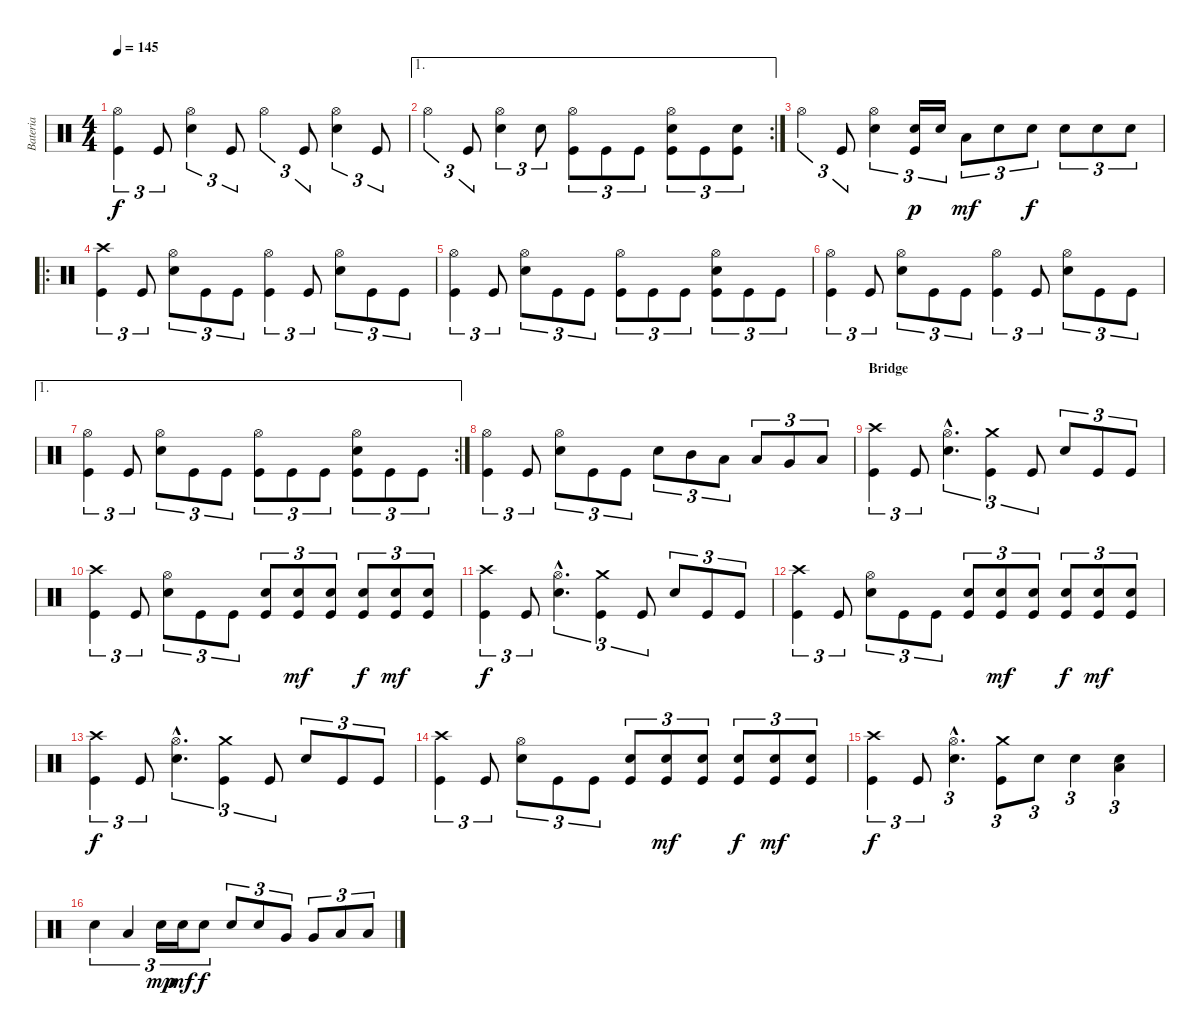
\track ("Bateria" "Bateria") {instrument percussion}
\staff {score}
\articulation defaults
\ts (4 4)
\tempo 145
\clef neutral
\ks c
("Hi-Hat (open)" "Kick (hit)").4{tu (3 2) dy f} "Kick (hit)".8{tu (3 2)} ("Hi-Hat (open)" "Snare (hit) 2").4{tu (3 2)} "Kick (hit)".8{tu (3 2)} "Hi-Hat (open)".4{tu (3 2)} "Kick (hit)".8{tu (3 2)} ("Hi-Hat (open)" "Snare (hit) 2").4{tu (3 2)} "Kick (hit)".8{tu (3 2)} |
\ae 1
\rc 2 "Hi-Hat (open)".4{tu (3 2)} "Kick (hit)".8{tu (3 2)}
("Hi-Hat (open)" "Snare (hit) 2").4{tu (3 2)} "Snare (hit) 2".8{tu (3 2)} ("Hi-Hat (open)" "Kick (hit)").8{tu (3 2)} "Kick (hit)".8{tu (3 2)} "Kick (hit)".8{tu (3 2)} ("Hi-Hat (open)" "Snare (hit) 2" "Kick (hit)").8{tu (3 2)} "Kick (hit)".8{tu (3 2)} ("Snare (hit) 2" "Kick (hit)").8{tu (3 2)} |
"Hi-Hat (open)".4{tu (3 2)} "Kick (hit)".8{tu (3 2)} ("Hi-Hat (open)" "Snare (hit) 2").4{tu (3 2)} ("Snare (hit) 2" "Kick (hit)").16{tu (3 2) dy p} "Snare (hit) 2".16{tu (3 2)} "Low Tom (hit)".8{tu (3 2) dy mf} "Snare (hit) 2".8{tu (3 2)} "Snare (hit) 2".8{tu (3 2) dy f} "Snare (hit) 2".8{tu (3 2)} "Snare (hit) 2".8{tu (3 2)} "Snare (hit) 2".8{tu (3 2)} |
\ro
("Crash high (hit)" "Kick (hit)").4{tu (3 2)} "Kick (hit)".8{tu (3 2)} ("Hi-Hat (open)" "Snare (hit) 2").8{tu (3 2)} "Kick (hit)".8{tu (3 2)} "Kick (hit)".8{tu (3 2)} ("Hi-Hat (open)" "Kick (hit)").4{tu (3 2)} "Kick (hit)".8{tu (3 2)} ("Hi-Hat (open)" "Snare (hit) 2").8{tu (3 2)} "Kick (hit)".8{tu (3 2)} "Kick (hit)".8{tu (3 2)} |
("Hi-Hat (open)" "Kick (hit)").4{tu (3 2)} "Kick (hit)".8{tu (3 2)} ("Hi-Hat (open)" "Snare (hit) 2").8{tu (3 2)} "Kick (hit)".8{tu (3 2)} "Kick (hit)".8{tu (3 2)} ("Hi-Hat (open)" "Kick (hit)").8{tu (3 2)} "Kick (hit)".8{tu (3 2)} "Kick (hit)".8{tu (3 2)} ("Hi-Hat (open)" "Snare (hit) 2" "Kick (hit)").8{tu (3 2)} "Kick (hit)".8{tu (3 2)} "Kick (hit)".8{tu (3 2)} |
("Hi-Hat (open)" "Kick (hit)").4{tu (3 2)} "Kick (hit)".8{tu (3 2)} ("Hi-Hat (open)" "Snare (hit) 2").8{tu (3 2)} "Kick (hit)".8{tu (3 2)} "Kick (hit)".8{tu (3 2)} ("Hi-Hat (open)" "Kick (hit)").4{tu (3 2)} "Kick (hit)".8{tu (3 2)} ("Hi-Hat (open)" "Snare (hit) 2").8{tu (3 2)} "Kick (hit)".8{tu (3 2)} "Kick (hit)".8{tu (3 2)} |
\ae 1
\rc 2
("Hi-Hat (open)" "Kick (hit)").4{tu (3 2)} "Kick (hit)".8{tu (3 2)} ("Hi-Hat (open)" "Snare (hit) 2").8{tu (3 2)} "Kick (hit)".8{tu (3 2)} "Kick (hit)".8{tu (3 2)} ("Hi-Hat (open)" "Kick (hit)").8{tu (3 2)} "Kick (hit)".8{tu (3 2)} "Kick (hit)".8{tu (3 2)} ("Hi-Hat (open)" "Snare (hit) 2" "Kick (hit)").8{tu (3 2)} "Kick (hit)".8{tu (3 2)} "Kick (hit)".8{tu (3 2)} |
("Hi-Hat (open)" "Kick (hit)").4{tu (3 2)} "Kick (hit)".8{tu (3 2)} ("Hi-Hat (open)" "Snare (hit) 2").8{tu (3 2)} "Kick (hit)".8{tu (3 2)} "Kick (hit)".8{tu (3 2)} "Snare (hit) 2".8{tu (3 2)} "Mid Tom (hit)".8{tu (3 2)} "Low Tom (hit)".8{tu (3 2)} "Low Tom (hit)".8{tu (3 2)} "Very Low Tom (hit)".8{tu (3 2)} "Low Floor Tom (hit)".8{tu (3 2)} |
\section ("" "Bridge")
("Crash high (hit)" "Kick (hit)").4{tu (3 2)} "Kick (hit)".8{tu (3 2)} ("Hi-Hat (open)"{hac} "Snare (hit) 2"{hac}).4{d tu (3 2)} ("Crash medium (hit)" "Kick (hit)").4{tu (3 2)} "Kick (hit)".8{tu (3 2)} "Snare (hit) 2".8{tu (3 2)} "Kick (hit)".8{tu (3 2)} "Kick (hit)".8{tu (3 2)} |
("Crash high (hit)" "Kick (hit)").4{tu (3 2)} "Kick (hit)".8{tu (3 2)} ("Hi-Hat (open)" "Snare (hit) 2").8{tu (3 2)} "Kick (hit)".8{tu (3 2)} "Kick (hit)".8{tu (3 2)} ("Snare (hit) 2" "Kick (hit)").8{tu (3 2)} ("Snare (hit) 2" "Kick (hit)").8{tu (3 2) dy mf} ("Snare (hit) 2" "Kick (hit)").8{tu (3 2)} ("Snare (hit) 2" "Kick (hit)").8{tu (3 2) dy f} ("Snare (hit) 2" "Kick (hit)").8{tu (3 2) dy mf} ("Snare (hit) 2" "Kick (hit)").8{tu (3 2)} |
("Crash high (hit)" "Kick (hit)").4{tu (3 2) dy f} "Kick (hit)".8{tu (3 2)} ("Hi-Hat (open)"{hac} "Snare (hit) 2"{hac}).4{d tu (3 2)} ("Crash medium (hit)" "Kick (hit)").4{tu (3 2)} "Kick (hit)".8{tu (3 2)} "Snare (hit) 2".8{tu (3 2)} "Kick (hit)".8{tu (3 2)} "Kick (hit)".8{tu (3 2)} |
("Crash high (hit)" "Kick (hit)").4{tu (3 2)} "Kick (hit)".8{tu (3 2)} ("Hi-Hat (open)" "Snare (hit) 2").8{tu (3 2)} "Kick (hit)".8{tu (3 2)} "Kick (hit)".8{tu (3 2)} ("Snare (hit) 2" "Kick (hit)").8{tu (3 2)} ("Snare (hit) 2" "Kick (hit)").8{tu (3 2) dy mf} ("Snare (hit) 2" "Kick (hit)").8{tu (3 2)} ("Snare (hit) 2" "Kick (hit)").8{tu (3 2) dy f} ("Snare (hit) 2" "Kick (hit)").8{tu (3 2) dy mf} ("Snare (hit) 2" "Kick (hit)").8{tu (3 2)} |
("Crash high (hit)" "Kick (hit)").4{tu (3 2) dy f} "Kick (hit)".8{tu (3 2)} ("Hi-Hat (open)"{hac} "Snare (hit) 2"{hac}).4{d tu (3 2)} ("Crash medium (hit)" "Kick (hit)").4{tu (3 2)} "Kick (hit)".8{tu (3 2)} "Snare (hit) 2".8{tu (3 2)} "Kick (hit)".8{tu (3 2)} "Kick (hit)".8{tu (3 2)} |
("Crash high (hit)" "Kick (hit)").4{tu (3 2)} "Kick (hit)".8{tu (3 2)} ("Hi-Hat (open)" "Snare (hit) 2").8{tu (3 2)} "Kick (hit)".8{tu (3 2)} "Kick (hit)".8{tu (3 2)} ("Snare (hit) 2" "Kick (hit)").8{tu (3 2)} ("Snare (hit) 2" "Kick (hit)").8{tu (3 2) dy mf} ("Snare (hit) 2" "Kick (hit)").8{tu (3 2)} ("Snare (hit) 2" "Kick (hit)").8{tu (3 2) dy f} ("Snare (hit) 2" "Kick (hit)").8{tu (3 2) dy mf} ("Snare (hit) 2" "Kick (hit)").8{tu (3 2)} |
("Crash high (hit)" "Kick (hit)").4{tu (3 2) dy f} "Kick (hit)".8{tu (3 2)} ("Hi-Hat (open)"{hac} "Snare (hit) 2"{hac}).4{d tu (3 2)} ("Crash medium (hit)" "Kick (hit)").8{tu (3 2)} "Snare (hit) 2".8{tu (3 2)} "Snare (hit) 2".4{tu (3 2)} ("Snare (hit) 2" "Low Tom (hit)").4{tu (3 2)} |
"Snare (hit) 2".4{tu (3 2)} "Low Tom (hit)".4{tu (3 2)} "Snare (hit) 2".16{tu (3 2) dy mp} "Snare (hit) 2".16{tu (3 2) dy mf} "Snare (hit) 2".8{tu (3 2) dy f} "Snare (hit) 2".8{tu (3 2)} "Snare (hit) 2".8{tu (3 2)} "Very Low Tom (hit)".8{tu (3 2)} "Very Low Tom (hit)".8{tu (3 2)} "Low Floor Tom (hit)".8{tu (3 2)} "Low Floor Tom (hit)".8{tu (3 2)}
